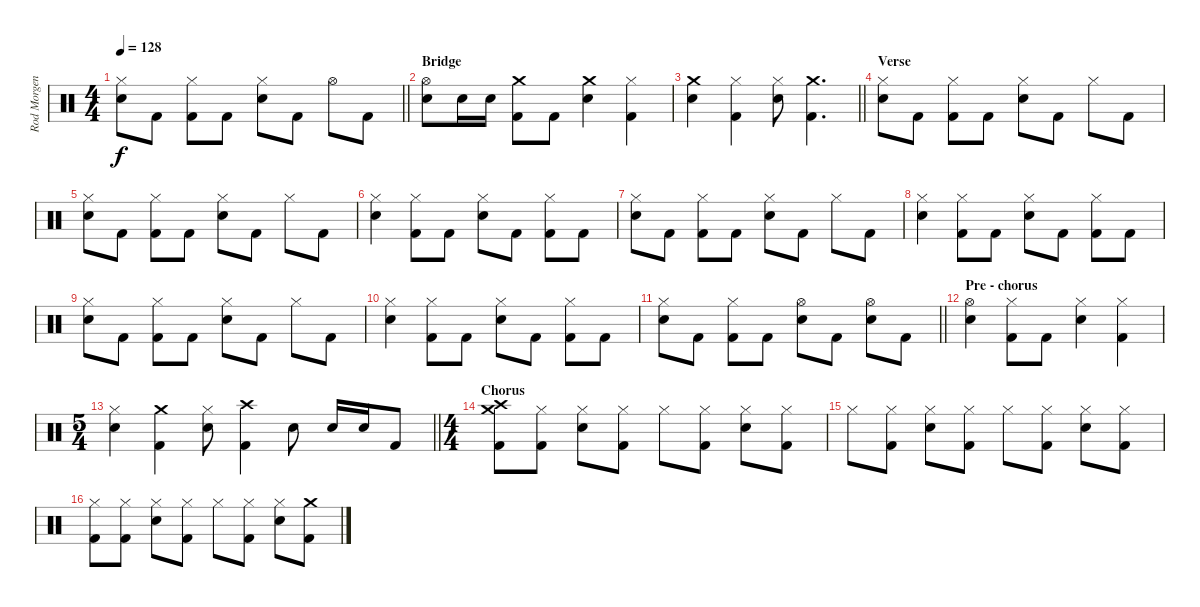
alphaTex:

\track ("Rod Morgenstein" "Rod Morgen") {instrument percussion}
\staff {score}
\articulation defaults
\ts (4 4)
\tempo 128
\clef neutral
\barLineRight lightlight
\ks c
("Hi-Hat (closed)" "Snare (hit) 2").8{dy f} "Kick (hit) 2".8 ("Hi-Hat (closed)" "Kick (hit) 2").8 "Kick (hit) 2".8 ("Hi-Hat (closed)" "Snare (hit) 2").8 "Kick (hit) 2".8 "Hi-Hat (open)".8 "Kick (hit) 2".8 |
\section ("" "Bridge")
("Hi-Hat (open)" "Snare (hit) 2").8 "Snare (hit) 2".16 "Snare (hit) 2".16 ("Crash medium (hit)" "Kick (hit) 2").8 "Kick (hit) 2".8 ("Crash medium (hit)" "Snare (hit) 2").4 ("Hi-Hat (closed)" "Kick (hit) 2").4 |
\barLineRight lightlight
("Crash medium (hit)" "Snare (hit) 2").4 ("Hi-Hat (closed)" "Kick (hit) 2").4 ("Hi-Hat (closed)" "Snare (hit) 2").8 ("Crash medium (hit)" "Kick (hit) 2").4{d} |
\section ("" "Verse")
("Hi-Hat (closed)" "Snare (hit) 2").8 "Kick (hit) 2".8 ("Hi-Hat (closed)" "Kick (hit) 2").8 "Kick (hit) 2".8 ("Hi-Hat (closed)" "Snare (hit) 2").8 "Kick (hit) 2".8 "Hi-Hat (closed)".8 "Kick (hit) 2".8 |
("Hi-Hat (closed)" "Snare (hit) 2").8 "Kick (hit) 2".8 ("Hi-Hat (closed)" "Kick (hit) 2").8 "Kick (hit) 2".8 ("Hi-Hat (closed)" "Snare (hit) 2").8 "Kick (hit) 2".8 "Hi-Hat (closed)".8 "Kick (hit) 2".8 |
("Hi-Hat (closed)" "Snare (hit) 2").4 ("Hi-Hat (closed)" "Kick (hit) 2").8 "Kick (hit) 2".8 ("Hi-Hat (closed)" "Snare (hit) 2").8 "Kick (hit) 2".8 ("Hi-Hat (closed)" "Kick (hit) 2").8 "Kick (hit) 2".8 |
("Hi-Hat (closed)" "Snare (hit) 2").8 "Kick (hit) 2".8 ("Hi-Hat (closed)" "Kick (hit) 2").8 "Kick (hit) 2".8 ("Hi-Hat (closed)" "Snare (hit) 2").8 "Kick (hit) 2".8 "Hi-Hat (closed)".8 "Kick (hit) 2".8 |
("Hi-Hat (closed)" "Snare (hit) 2").4 ("Hi-Hat (closed)" "Kick (hit) 2").8 "Kick (hit) 2".8 ("Hi-Hat (closed)" "Snare (hit) 2").8 "Kick (hit) 2".8 ("Hi-Hat (closed)" "Kick (hit) 2").8 "Kick (hit) 2".8 |
("Hi-Hat (closed)" "Snare (hit) 2").8 "Kick (hit) 2".8 ("Hi-Hat (closed)" "Kick (hit) 2").8 "Kick (hit) 2".8 ("Hi-Hat (closed)" "Snare (hit) 2").8 "Kick (hit) 2".8 "Hi-Hat (closed)".8 "Kick (hit) 2".8 |
("Hi-Hat (closed)" "Snare (hit) 2").4 ("Hi-Hat (closed)" "Kick (hit) 2").8 "Kick (hit) 2".8 ("Hi-Hat (closed)" "Snare (hit) 2").8 "Kick (hit) 2".8 ("Hi-Hat (closed)" "Kick (hit) 2").8 "Kick (hit) 2".8 |
\barLineRight lightlight
("Hi-Hat (closed)" "Snare (hit) 2").8 "Kick (hit) 2".8 ("Hi-Hat (closed)" "Kick (hit) 2").8 "Kick (hit) 2".8 ("Hi-Hat (open)" "Snare (hit) 2").8 "Kick (hit) 2".8 ("Hi-Hat (open)" "Snare (hit) 2").8 "Kick (hit) 2".8 |
\section ("" "Pre - chorus")
("Hi-Hat (open)" "Snare (hit) 2").4 ("Hi-Hat (closed)" "Kick (hit) 2").8 "Kick (hit) 2".8 ("Hi-Hat (closed)" "Snare (hit) 2").4 ("Hi-Hat (closed)" "Kick (hit) 2").4 |
\ts (5 4)
\barLineRight lightlight
("Hi-Hat (closed)" "Snare (hit) 2").4 ("Crash medium (hit)" "Kick (hit) 2").4 ("Hi-Hat (closed)" "Snare (hit) 2").8 ("Crash high (hit)" "Kick (hit) 2").4 "Snare (hit) 2".8 "Snare (hit) 2".16 "Snare (hit) 2".16 "Kick (hit) 2".8 |
\ts (4 4)
\section ("" "Chorus")
("Crash medium (hit)" "Crash high (hit)" "Kick (hit) 2").8 ("Hi-Hat (closed)" "Kick (hit) 2").8 ("Hi-Hat (closed)" "Snare (hit) 2").8 ("Hi-Hat (closed)" "Kick (hit) 2").8 "Hi-Hat (closed)".8 ("Hi-Hat (closed)" "Kick (hit) 2").8 ("Hi-Hat (closed)" "Snare (hit) 2").8 ("Hi-Hat (closed)" "Kick (hit) 2").8 |
"Hi-Hat (closed)".8 ("Hi-Hat (closed)" "Kick (hit) 2").8 ("Hi-Hat (closed)" "Snare (hit) 2").8 ("Hi-Hat (closed)" "Kick (hit) 2").8 "Hi-Hat (closed)".8 ("Hi-Hat (closed)" "Kick (hit) 2").8 ("Hi-Hat (closed)" "Snare (hit) 2").8 ("Hi-Hat (closed)" "Kick (hit) 2").8 |
("Hi-Hat (closed)" "Kick (hit) 2").8 ("Hi-Hat (closed)" "Kick (hit) 2").8 ("Hi-Hat (closed)" "Snare (hit) 2").8 ("Hi-Hat (closed)" "Kick (hit) 2").8 "Hi-Hat (closed)".8 ("Hi-Hat (closed)" "Kick (hit) 2").8 ("Hi-Hat (closed)" "Snare (hit) 2").8 ("Crash medium (hit)" "Kick (hit) 2").8
